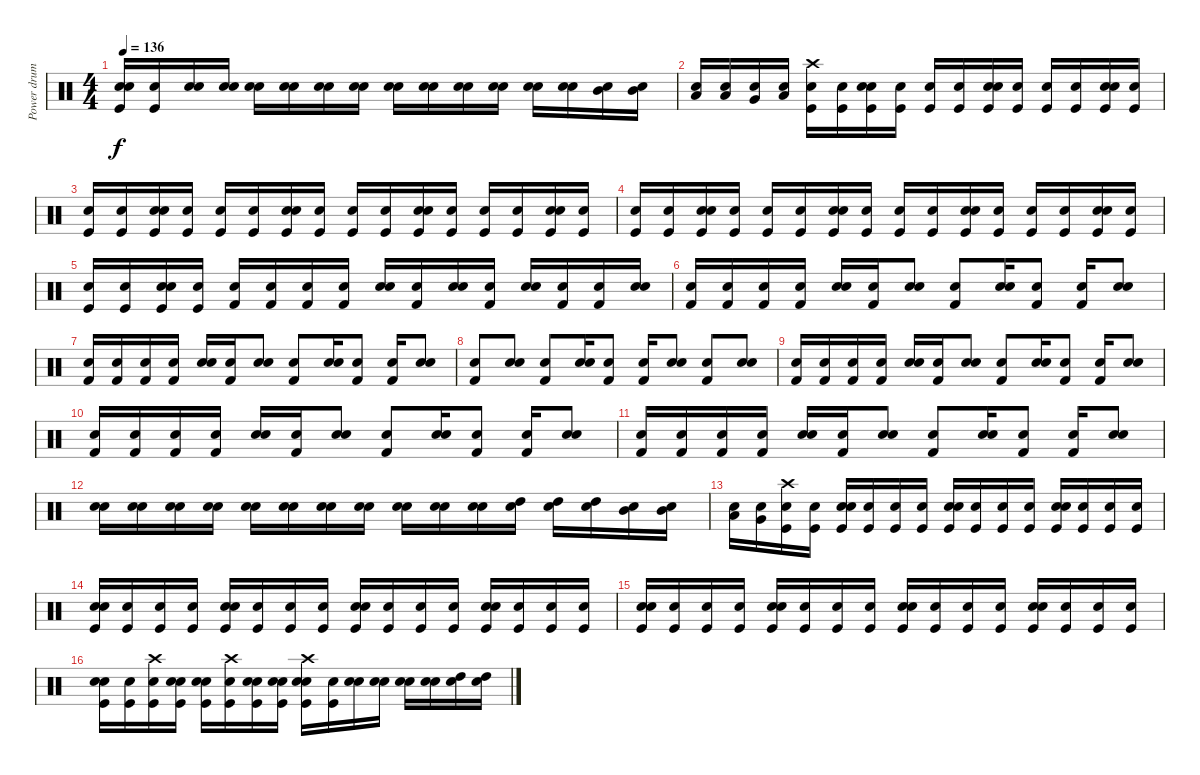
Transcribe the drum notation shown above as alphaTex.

\track ("Power drums" "Power drum") {instrument percussion}
\staff {score}
\articulation defaults
\ts (4 4)
\tempo 136
\clef neutral
\ks c
("Snare (hit)" "Kick (hit)" "Snare (hit) 2").16{dy f} ("Snare (hit)" "Kick (hit)").16 ("Snare (hit)" "Snare (hit) 2").16 ("Snare (hit)" "Snare (hit) 2").16 ("Snare (hit)" "Snare (hit) 2").16 ("Snare (hit)" "Snare (hit) 2").16 ("Snare (hit)" "Snare (hit) 2").16 ("Snare (hit)" "Snare (hit) 2").16 ("Snare (hit)" "Snare (hit) 2").16 ("Snare (hit)" "Snare (hit) 2").16 ("Snare (hit)" "Snare (hit) 2").16 ("Snare (hit)" "Snare (hit) 2").16 ("Snare (hit)" "Snare (hit) 2").16 ("Snare (hit)" "Snare (hit) 2").16 ("Snare (hit)" "Mid Tom (hit)").16 ("Snare (hit)" "Mid Tom (hit)").16 |
("Snare (hit)" "Low Tom (hit)").16 ("Snare (hit)" "Low Tom (hit)").16 ("Snare (hit)" "Very Low Tom (hit)").16 ("Snare (hit)" "Low Floor Tom (hit)").16 ("Snare (hit)" "Kick (hit)" "Crash high (hit)").16 ("Snare (hit)" "Kick (hit)").16 ("Snare (hit)" "Kick (hit)" "Snare (hit) 2").16 ("Snare (hit)" "Kick (hit)").16 ("Snare (hit)" "Kick (hit)").16 ("Snare (hit)" "Kick (hit)").16 ("Snare (hit)" "Kick (hit)" "Snare (hit) 2").16 ("Snare (hit)" "Kick (hit)").16 ("Snare (hit)" "Kick (hit)").16 ("Snare (hit)" "Kick (hit)").16 ("Snare (hit)" "Kick (hit)" "Snare (hit) 2").16 ("Snare (hit)" "Kick (hit)").16 |
("Snare (hit)" "Kick (hit)").16 ("Snare (hit)" "Kick (hit)").16 ("Snare (hit)" "Kick (hit)" "Snare (hit) 2").16 ("Snare (hit)" "Kick (hit)").16 ("Snare (hit)" "Kick (hit)").16 ("Snare (hit)" "Kick (hit)").16 ("Snare (hit)" "Kick (hit)" "Snare (hit) 2").16 ("Snare (hit)" "Kick (hit)").16 ("Snare (hit)" "Kick (hit)").16 ("Snare (hit)" "Kick (hit)").16 ("Snare (hit)" "Kick (hit)" "Snare (hit) 2").16 ("Snare (hit)" "Kick (hit)").16 ("Snare (hit)" "Kick (hit)").16 ("Snare (hit)" "Kick (hit)").16 ("Snare (hit)" "Kick (hit)" "Snare (hit) 2").16 ("Snare (hit)" "Kick (hit)").16 |
("Snare (hit)" "Kick (hit)").16 ("Snare (hit)" "Kick (hit)").16 ("Snare (hit)" "Kick (hit)" "Snare (hit) 2").16 ("Snare (hit)" "Kick (hit)").16 ("Snare (hit)" "Kick (hit)").16 ("Snare (hit)" "Kick (hit)").16 ("Snare (hit)" "Kick (hit)" "Snare (hit) 2").16 ("Snare (hit)" "Kick (hit)").16 ("Snare (hit)" "Kick (hit)").16 ("Snare (hit)" "Kick (hit)").16 ("Snare (hit)" "Kick (hit)" "Snare (hit) 2").16 ("Snare (hit)" "Kick (hit)").16 ("Snare (hit)" "Kick (hit)").16 ("Snare (hit)" "Kick (hit)").16 ("Snare (hit)" "Kick (hit)" "Snare (hit) 2").16 ("Snare (hit)" "Kick (hit)").16 |
("Snare (hit)" "Kick (hit)").16 ("Snare (hit)" "Kick (hit)").16 ("Snare (hit)" "Kick (hit)" "Snare (hit) 2").16 ("Snare (hit)" "Kick (hit)").16 ("Snare (hit)" "Kick (hit) 2").16 ("Snare (hit)" "Kick (hit) 2").16 ("Snare (hit)" "Kick (hit) 2").16 ("Snare (hit)" "Kick (hit) 2").16 ("Snare (hit)" "Snare (hit) 2").16 ("Snare (hit)" "Kick (hit) 2").16 ("Snare (hit)" "Snare (hit) 2").16 ("Snare (hit)" "Kick (hit) 2").16 ("Snare (hit)" "Snare (hit) 2").16 ("Snare (hit)" "Kick (hit) 2").16 ("Snare (hit)" "Kick (hit) 2").16 ("Snare (hit)" "Snare (hit) 2").16 |
("Snare (hit)" "Kick (hit) 2").16 ("Snare (hit)" "Kick (hit) 2").16 ("Snare (hit)" "Kick (hit) 2").16 ("Snare (hit)" "Kick (hit) 2").16 ("Snare (hit)" "Snare (hit) 2").16 ("Snare (hit)" "Kick (hit) 2").16 ("Snare (hit)" "Snare (hit) 2").8 ("Snare (hit)" "Kick (hit) 2").8 ("Snare (hit)" "Snare (hit) 2").16 ("Snare (hit)" "Kick (hit) 2").8 ("Snare (hit)" "Kick (hit) 2").16 ("Snare (hit)" "Snare (hit) 2").8 |
("Snare (hit)" "Kick (hit) 2").16 ("Snare (hit)" "Kick (hit) 2").16 ("Snare (hit)" "Kick (hit) 2").16 ("Snare (hit)" "Kick (hit) 2").16 ("Snare (hit)" "Snare (hit) 2").16 ("Snare (hit)" "Kick (hit) 2").16 ("Snare (hit)" "Snare (hit) 2").8 ("Snare (hit)" "Kick (hit) 2").8 ("Snare (hit)" "Snare (hit) 2").16 ("Snare (hit)" "Kick (hit) 2").8 ("Snare (hit)" "Kick (hit) 2").16 ("Snare (hit)" "Snare (hit) 2").8 |
("Snare (hit)" "Kick (hit) 2").8 ("Snare (hit)" "Snare (hit) 2").8 ("Snare (hit)" "Kick (hit) 2").8 ("Snare (hit)" "Snare (hit) 2").16 ("Snare (hit)" "Kick (hit) 2").8 ("Snare (hit)" "Kick (hit) 2").16 ("Snare (hit)" "Snare (hit) 2").8 ("Snare (hit)" "Kick (hit) 2").8 ("Snare (hit)" "Snare (hit) 2").8 |
("Snare (hit)" "Kick (hit) 2").16 ("Snare (hit)" "Kick (hit) 2").16 ("Snare (hit)" "Kick (hit) 2").16 ("Snare (hit)" "Kick (hit) 2").16 ("Snare (hit)" "Snare (hit) 2").16 ("Snare (hit)" "Kick (hit) 2").16 ("Snare (hit)" "Snare (hit) 2").8 ("Snare (hit)" "Kick (hit) 2").8 ("Snare (hit)" "Snare (hit) 2").16 ("Snare (hit)" "Kick (hit) 2").8 ("Snare (hit)" "Kick (hit) 2").16 ("Snare (hit)" "Snare (hit) 2").8 |
("Snare (hit)" "Kick (hit) 2").16 ("Snare (hit)" "Kick (hit) 2").16 ("Snare (hit)" "Kick (hit) 2").16 ("Snare (hit)" "Kick (hit) 2").16 ("Snare (hit)" "Snare (hit) 2").16 ("Snare (hit)" "Kick (hit) 2").16 ("Snare (hit)" "Snare (hit) 2").8 ("Snare (hit)" "Kick (hit) 2").8 ("Snare (hit)" "Snare (hit) 2").16 ("Snare (hit)" "Kick (hit) 2").8 ("Snare (hit)" "Kick (hit) 2").16 ("Snare (hit)" "Snare (hit) 2").8 |
("Snare (hit)" "Kick (hit) 2").16 ("Snare (hit)" "Kick (hit) 2").16 ("Snare (hit)" "Kick (hit) 2").16 ("Snare (hit)" "Kick (hit) 2").16 ("Snare (hit)" "Snare (hit) 2").16 ("Snare (hit)" "Kick (hit) 2").16 ("Snare (hit)" "Snare (hit) 2").8 ("Snare (hit)" "Kick (hit) 2").8 ("Snare (hit)" "Snare (hit) 2").16 ("Snare (hit)" "Kick (hit) 2").8 ("Snare (hit)" "Kick (hit) 2").16 ("Snare (hit)" "Snare (hit) 2").8 |
("Snare (hit)" "Snare (hit) 2").16 ("Snare (hit)" "Snare (hit) 2").16 ("Snare (hit)" "Snare (hit) 2").16 ("Snare (hit)" "Snare (hit) 2").16 ("Snare (hit)" "Snare (hit) 2").16 ("Snare (hit)" "Snare (hit) 2").16 ("Snare (hit)" "Snare (hit) 2").16 ("Snare (hit)" "Snare (hit) 2").16 ("Snare (hit)" "Snare (hit) 2").16 ("Snare (hit)" "Snare (hit) 2").16 ("Snare (hit)" "Snare (hit) 2").16 ("Snare (hit)" "High Tom (hit)").16 ("Snare (hit)" "High Tom (hit)").16 ("Snare (hit)" "High Tom (hit)").16 ("Snare (hit)" "Mid Tom (hit)").16 ("Snare (hit)" "Mid Tom (hit)").16 |
("Snare (hit)" "Low Tom (hit)").16 ("Snare (hit)" "Very Low Tom (hit)").16 ("Snare (hit)" "Kick (hit)" "Crash high (hit)").16 ("Snare (hit)" "Kick (hit)").16 ("Snare (hit)" "Kick (hit)" "Snare (hit) 2").16 ("Snare (hit)" "Kick (hit)").16 ("Snare (hit)" "Kick (hit)").16 ("Snare (hit)" "Kick (hit)").16 ("Snare (hit)" "Kick (hit)" "Snare (hit) 2").16 ("Snare (hit)" "Kick (hit)").16 ("Snare (hit)" "Kick (hit)").16 ("Snare (hit)" "Kick (hit)").16 ("Snare (hit)" "Kick (hit)" "Snare (hit) 2").16 ("Snare (hit)" "Kick (hit)").16 ("Snare (hit)" "Kick (hit)").16 ("Snare (hit)" "Kick (hit)").16 |
("Snare (hit)" "Kick (hit)" "Snare (hit) 2").16 ("Snare (hit)" "Kick (hit)").16 ("Snare (hit)" "Kick (hit)").16 ("Snare (hit)" "Kick (hit)").16 ("Snare (hit)" "Kick (hit)" "Snare (hit) 2").16 ("Snare (hit)" "Kick (hit)").16 ("Snare (hit)" "Kick (hit)").16 ("Snare (hit)" "Kick (hit)").16 ("Snare (hit)" "Kick (hit)" "Snare (hit) 2").16 ("Snare (hit)" "Kick (hit)").16 ("Snare (hit)" "Kick (hit)").16 ("Snare (hit)" "Kick (hit)").16 ("Snare (hit)" "Kick (hit)" "Snare (hit) 2").16 ("Snare (hit)" "Kick (hit)").16 ("Snare (hit)" "Kick (hit)").16 ("Snare (hit)" "Kick (hit)").16 |
("Snare (hit)" "Kick (hit)" "Snare (hit) 2").16 ("Snare (hit)" "Kick (hit)").16 ("Snare (hit)" "Kick (hit)").16 ("Snare (hit)" "Kick (hit)").16 ("Snare (hit)" "Kick (hit)" "Snare (hit) 2").16 ("Snare (hit)" "Kick (hit)").16 ("Snare (hit)" "Kick (hit)").16 ("Snare (hit)" "Kick (hit)").16 ("Snare (hit)" "Kick (hit)" "Snare (hit) 2").16 ("Snare (hit)" "Kick (hit)").16 ("Snare (hit)" "Kick (hit)").16 ("Snare (hit)" "Kick (hit)").16 ("Snare (hit)" "Kick (hit)" "Snare (hit) 2").16 ("Snare (hit)" "Kick (hit)").16 ("Snare (hit)" "Kick (hit)").16 ("Snare (hit)" "Kick (hit)").16 |
("Snare (hit)" "Kick (hit)" "Snare (hit) 2").16 ("Snare (hit)" "Kick (hit)").16 ("Snare (hit)" "Kick (hit)" "Crash high (hit)").16 ("Snare (hit)" "Kick (hit)" "Snare (hit) 2").16 ("Snare (hit)" "Kick (hit)" "Snare (hit) 2").16 ("Snare (hit)" "Kick (hit)" "Crash high (hit)").16 ("Snare (hit)" "Kick (hit)" "Snare (hit) 2").16 ("Snare (hit)" "Kick (hit)" "Snare (hit) 2").16 ("Snare (hit)" "Kick (hit)" "Snare (hit) 2" "Crash high (hit)").16 ("Snare (hit)" "Kick (hit)").16 ("Snare (hit)" "Snare (hit) 2").16 ("Snare (hit)" "Snare (hit) 2").16 ("Snare (hit)" "Snare (hit) 2").16 ("Snare (hit)" "Snare (hit) 2").16 ("Snare (hit)" "High Tom (hit)").16 ("Snare (hit)" "High Tom (hit)").16
